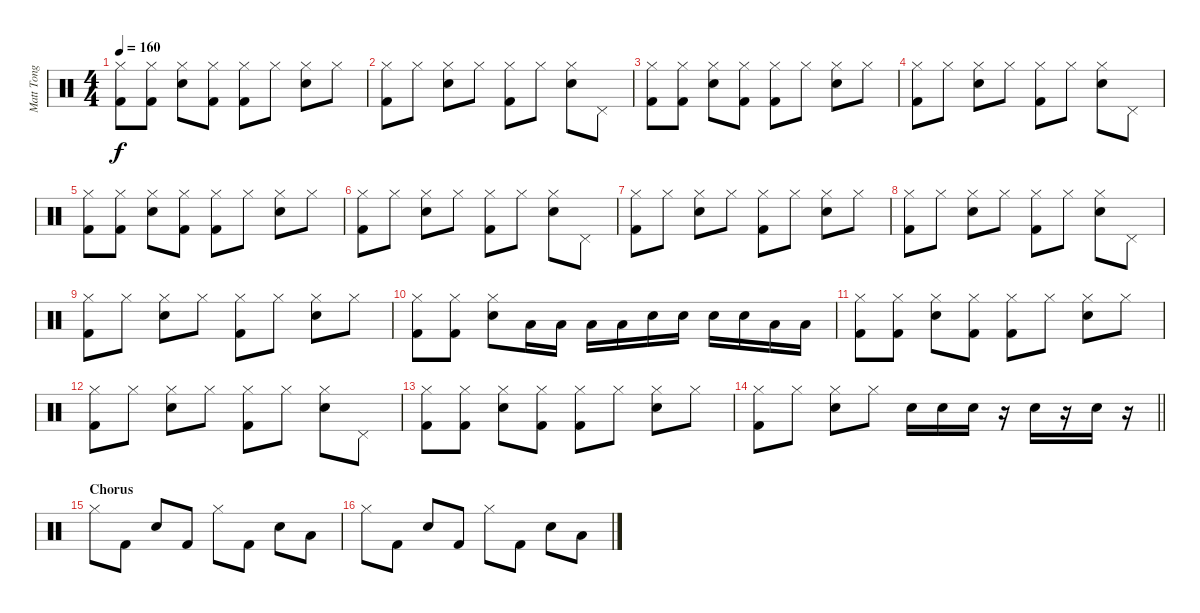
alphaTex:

\track ("Matt Tong" "Matt Tong") {instrument percussion}
\staff {score}
\articulation defaults
\ts (4 4)
\tempo 160
\clef neutral
\ks c
("Hi-Hat (closed)" "Kick (hit) 2").8{dy f} ("Hi-Hat (closed)" "Kick (hit) 2").8 ("Hi-Hat (closed)" "Snare (hit) 2").8 ("Hi-Hat (closed)" "Kick (hit) 2").8 ("Hi-Hat (closed)" "Kick (hit) 2").8 "Hi-Hat (closed)".8 ("Hi-Hat (closed)" "Snare (hit) 2").8 "Hi-Hat (closed)".8 |
("Hi-Hat (closed)" "Kick (hit) 2").8 "Hi-Hat (closed)".8 ("Hi-Hat (closed)" "Snare (hit) 2").8 "Hi-Hat (closed)".8 ("Hi-Hat (closed)" "Kick (hit) 2").8 "Hi-Hat (closed)".8 ("Hi-Hat (closed)" "Snare (hit) 2").8 "Pedal Hi-Hat (hit)".8 |
("Hi-Hat (closed)" "Kick (hit) 2").8 ("Hi-Hat (closed)" "Kick (hit) 2").8 ("Hi-Hat (closed)" "Snare (hit) 2").8 ("Hi-Hat (closed)" "Kick (hit) 2").8 ("Hi-Hat (closed)" "Kick (hit) 2").8 "Hi-Hat (closed)".8 ("Hi-Hat (closed)" "Snare (hit) 2").8 "Hi-Hat (closed)".8 |
("Hi-Hat (closed)" "Kick (hit) 2").8 "Hi-Hat (closed)".8 ("Hi-Hat (closed)" "Snare (hit) 2").8 "Hi-Hat (closed)".8 ("Hi-Hat (closed)" "Kick (hit) 2").8 "Hi-Hat (closed)".8 ("Hi-Hat (closed)" "Snare (hit) 2").8 "Pedal Hi-Hat (hit)".8 |
("Hi-Hat (closed)" "Kick (hit) 2").8 ("Hi-Hat (closed)" "Kick (hit) 2").8 ("Hi-Hat (closed)" "Snare (hit) 2").8 ("Hi-Hat (closed)" "Kick (hit) 2").8 ("Hi-Hat (closed)" "Kick (hit) 2").8 "Hi-Hat (closed)".8 ("Hi-Hat (closed)" "Snare (hit) 2").8 "Hi-Hat (closed)".8 |
("Hi-Hat (closed)" "Kick (hit) 2").8 "Hi-Hat (closed)".8 ("Hi-Hat (closed)" "Snare (hit) 2").8 "Hi-Hat (closed)".8 ("Hi-Hat (closed)" "Kick (hit) 2").8 "Hi-Hat (closed)".8 ("Hi-Hat (closed)" "Snare (hit) 2").8 "Pedal Hi-Hat (hit)".8 |
("Hi-Hat (closed)" "Kick (hit) 2").8 "Hi-Hat (closed)".8 ("Hi-Hat (closed)" "Snare (hit) 2").8 "Hi-Hat (closed)".8 ("Hi-Hat (closed)" "Kick (hit) 2").8 "Hi-Hat (closed)".8 ("Hi-Hat (closed)" "Snare (hit) 2").8 "Hi-Hat (closed)".8 |
("Hi-Hat (closed)" "Kick (hit) 2").8 "Hi-Hat (closed)".8 ("Hi-Hat (closed)" "Snare (hit) 2").8 "Hi-Hat (closed)".8 ("Hi-Hat (closed)" "Kick (hit) 2").8 "Hi-Hat (closed)".8 ("Hi-Hat (closed)" "Snare (hit) 2").8 "Pedal Hi-Hat (hit)".8 |
("Hi-Hat (closed)" "Kick (hit) 2").8 "Hi-Hat (closed)".8 ("Hi-Hat (closed)" "Snare (hit) 2").8 "Hi-Hat (closed)".8 ("Hi-Hat (closed)" "Kick (hit) 2").8 "Hi-Hat (closed)".8 ("Hi-Hat (closed)" "Snare (hit) 2").8 "Hi-Hat (closed)".8 |
("Hi-Hat (closed)" "Kick (hit) 2").8 ("Hi-Hat (closed)" "Kick (hit) 2").8 ("Hi-Hat (closed)" "Snare (hit) 2").8 "Low Tom (hit)".16 "Low Tom (hit)".16 "Low Floor Tom (hit)".16 "Low Floor Tom (hit)".16 "Snare (hit) 2".16 "Snare (hit) 2".16 "Snare (hit) 2".16 "Snare (hit) 2".16 "Low Floor Tom (hit)".16 "Low Floor Tom (hit)".16 |
("Hi-Hat (closed)" "Kick (hit) 2").8 ("Hi-Hat (closed)" "Kick (hit) 2").8 ("Hi-Hat (closed)" "Snare (hit) 2").8 ("Hi-Hat (closed)" "Kick (hit) 2").8 ("Hi-Hat (closed)" "Kick (hit) 2").8 "Hi-Hat (closed)".8 ("Hi-Hat (closed)" "Snare (hit) 2").8 "Hi-Hat (closed)".8 |
("Hi-Hat (closed)" "Kick (hit) 2").8 "Hi-Hat (closed)".8 ("Hi-Hat (closed)" "Snare (hit) 2").8 "Hi-Hat (closed)".8 ("Hi-Hat (closed)" "Kick (hit) 2").8 "Hi-Hat (closed)".8 ("Hi-Hat (closed)" "Snare (hit) 2").8 "Pedal Hi-Hat (hit)".8 |
("Hi-Hat (closed)" "Kick (hit) 2").8 ("Hi-Hat (closed)" "Kick (hit) 2").8 ("Hi-Hat (closed)" "Snare (hit) 2").8 ("Hi-Hat (closed)" "Kick (hit) 2").8 ("Hi-Hat (closed)" "Kick (hit) 2").8 "Hi-Hat (closed)".8 ("Hi-Hat (closed)" "Snare (hit) 2").8 "Hi-Hat (closed)".8 |
\barLineRight lightlight
("Hi-Hat (closed)" "Kick (hit) 2").8 "Hi-Hat (closed)".8 ("Hi-Hat (closed)" "Snare (hit) 2").8 "Hi-Hat (closed)".8 "Snare (hit) 2".16 "Snare (hit) 2".16 "Snare (hit) 2".16 r.16 "Snare (hit) 2".16 r.16 "Snare (hit) 2".16 r.16 |
\section ("" "Chorus")
"Hi-Hat (closed)".8 "Kick (hit) 2".8 "Snare (hit) 2".8 "Kick (hit) 2".8 "Hi-Hat (closed)".8 "Kick (hit) 2".8 "Snare (hit) 2".8 "Low Tom (hit)".8 |
"Hi-Hat (closed)".8 "Kick (hit) 2".8 "Snare (hit) 2".8 "Kick (hit) 2".8 "Hi-Hat (closed)".8 "Kick (hit) 2".8 "Snare (hit) 2".8 "Low Tom (hit)".8
